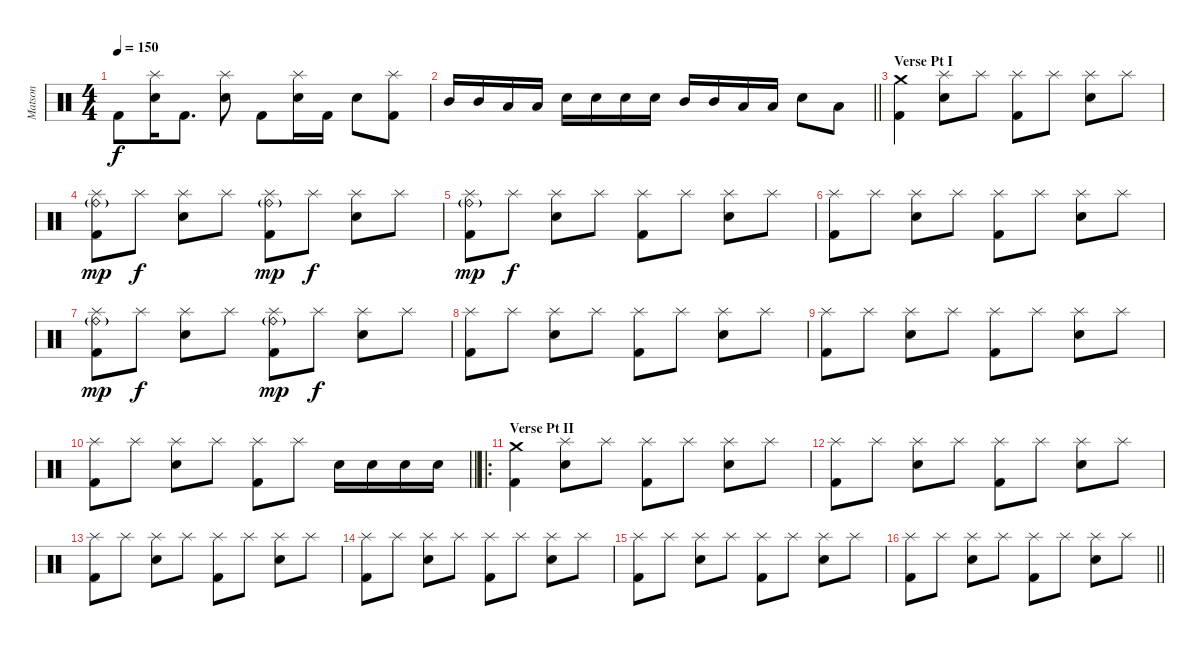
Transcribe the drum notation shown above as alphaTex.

\track ("Matson" "Matson") {instrument percussion}
\staff {score}
\articulation defaults
\ts (4 4)
\tempo 150
\clef neutral
\ks c "Kick (hit) 2".8{dy f}
("Snare (hit) 2" "Splash (hit)").16 "Kick (hit) 2".8{d} ("Snare (hit) 2" "Splash (hit)").8 "Kick (hit) 2".8 ("Snare (hit) 2" "Splash (hit)").16 "Kick (hit) 2".16 "Snare (hit) 2".8 ("Kick (hit) 2" "Splash (hit)").8 |
\barLineRight lightlight "Mid Tom (hit)".16 "Mid Tom (hit)".16 "Low Tom (hit)".16 "Low Tom (hit)".16 "Snare (hit) 2".16 "Snare (hit) 2".16 "Snare (hit) 2".16 "Snare (hit) 2".16 "Mid Tom (hit)".16 "Mid Tom (hit)".16 "Low Tom (hit)".16 "Low Tom (hit)".16 "Snare (hit) 2".8 "Low Floor Tom (hit)".8
|
\section ("" "Verse Pt I")
("Kick (hit) 2" "Crash medium (hit)").4 ("Snare (hit) 2" "Splash (hit)").8 "Splash (hit)".8 ("Kick (hit) 2" "Splash (hit)").8 "Splash (hit)".8 ("Snare (hit) 2" "Splash (hit)").8 "Splash (hit)".8 |
("Kick (hit) 2" "Splash (hit)" "Ride (bell)"{g}).8{dy mp} "Splash (hit)".8{dy f} ("Snare (hit) 2" "Splash (hit)").8 "Splash (hit)".8 ("Kick (hit) 2" "Splash (hit)" "Ride (bell)"{g}).8{dy mp} "Splash (hit)".8{dy f} ("Snare (hit) 2" "Splash (hit)").8 "Splash (hit)".8 |
("Kick (hit) 2" "Splash (hit)" "Ride (bell)"{g}).8{dy mp} "Splash (hit)".8{dy f} ("Snare (hit) 2" "Splash (hit)").8 "Splash (hit)".8 ("Kick (hit) 2" "Splash (hit)").8 "Splash (hit)".8 ("Snare (hit) 2" "Splash (hit)").8 "Splash (hit)".8 |
("Kick (hit) 2" "Splash (hit)").8 "Splash (hit)".8 ("Snare (hit) 2" "Splash (hit)").8 "Splash (hit)".8 ("Kick (hit) 2" "Splash (hit)").8 "Splash (hit)".8 ("Snare (hit) 2" "Splash (hit)").8 "Splash (hit)".8 |
("Kick (hit) 2" "Splash (hit)" "Ride (bell)"{g}).8{dy mp} "Splash (hit)".8{dy f} ("Snare (hit) 2" "Splash (hit)").8 "Splash (hit)".8 ("Kick (hit) 2" "Splash (hit)" "Ride (bell)"{g}).8{dy mp} "Splash (hit)".8{dy f} ("Snare (hit) 2" "Splash (hit)").8 "Splash (hit)".8 |
("Kick (hit) 2" "Splash (hit)").8 "Splash (hit)".8 ("Snare (hit) 2" "Splash (hit)").8 "Splash (hit)".8 ("Kick (hit) 2" "Splash (hit)").8 "Splash (hit)".8 ("Snare (hit) 2" "Splash (hit)").8 "Splash (hit)".8 |
("Kick (hit) 2" "Splash (hit)").8 "Splash (hit)".8 ("Snare (hit) 2" "Splash (hit)").8 "Splash (hit)".8 ("Kick (hit) 2" "Splash (hit)").8 "Splash (hit)".8 ("Snare (hit) 2" "Splash (hit)").8 "Splash (hit)".8 |
\barLineRight lightlight
("Kick (hit) 2" "Splash (hit)").8 "Splash (hit)".8 ("Snare (hit) 2" "Splash (hit)").8 "Splash (hit)".8 ("Kick (hit) 2" "Splash (hit)").8 "Splash (hit)".8 "Snare (hit) 2".16 "Snare (hit) 2".16 "Snare (hit) 2".16 "Snare (hit) 2".16 |
\ro
\section ("" "Verse Pt II")
("Kick (hit) 2" "Crash medium (hit)").4 ("Snare (hit) 2" "Splash (hit)").8 "Splash (hit)".8 ("Kick (hit) 2" "Splash (hit)").8 "Splash (hit)".8 ("Snare (hit) 2" "Splash (hit)").8 "Splash (hit)".8 |
("Kick (hit) 2" "Splash (hit)").8 "Splash (hit)".8 ("Snare (hit) 2" "Splash (hit)").8 "Splash (hit)".8 ("Kick (hit) 2" "Splash (hit)").8 "Splash (hit)".8 ("Snare (hit) 2" "Splash (hit)").8 "Splash (hit)".8 |
("Kick (hit) 2" "Splash (hit)").8 "Splash (hit)".8 ("Snare (hit) 2" "Splash (hit)").8 "Splash (hit)".8 ("Kick (hit) 2" "Splash (hit)").8 "Splash (hit)".8 ("Snare (hit) 2" "Splash (hit)").8 "Splash (hit)".8 |
("Kick (hit) 2" "Splash (hit)").8 "Splash (hit)".8 ("Snare (hit) 2" "Splash (hit)").8 "Splash (hit)".8 ("Kick (hit) 2" "Splash (hit)").8 "Splash (hit)".8 ("Snare (hit) 2" "Splash (hit)").8 "Splash (hit)".8 |
("Kick (hit) 2" "Splash (hit)").8 "Splash (hit)".8 ("Snare (hit) 2" "Splash (hit)").8 "Splash (hit)".8 ("Kick (hit) 2" "Splash (hit)").8 "Splash (hit)".8 ("Snare (hit) 2" "Splash (hit)").8 "Splash (hit)".8 |
\barLineRight lightlight
("Kick (hit) 2" "Splash (hit)").8 "Splash (hit)".8 ("Snare (hit) 2" "Splash (hit)").8 "Splash (hit)".8 ("Kick (hit) 2" "Splash (hit)").8 "Splash (hit)".8 ("Snare (hit) 2" "Splash (hit)").8 "Splash (hit)".8
